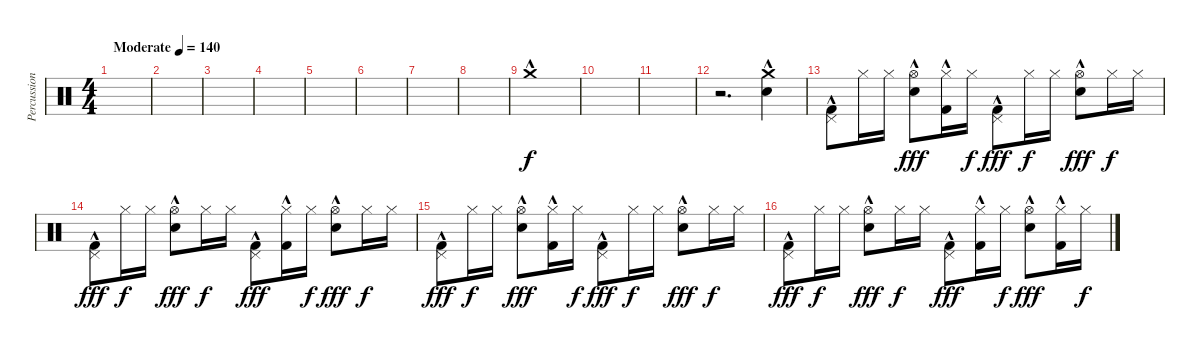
\track ("Percussion" "Percussion") {instrument percussion}
\staff {score}
\articulation defaults
\ts (4 4)
\tempo (140 "Moderate")
\clef neutral
\ks c
|
|
|
|
|
|
|
|
"Crash medium (hit)"{hac}.1 |
|
|
r.2{d} ("Crash medium (hit)"{hac} "Electric Snare (hit)"{hac}).4 |
("Pedal Hi-Hat (hit)" "Kick (hit) 2"{hac}).8 "Hi-Hat (closed)".16{dy f} "Hi-Hat (closed)".16 ("Hi-Hat (open)" "Electric Snare (hit)"{hac}).8{dy fff} ("Hi-Hat (closed)" "Kick (hit) 2"{hac}).16 "Hi-Hat (closed)".16{dy f} ("Pedal Hi-Hat (hit)" "Kick (hit) 2"{hac}).8{dy fff} "Hi-Hat (closed)".16{dy f} "Hi-Hat (closed)".16 ("Hi-Hat (open)" "Electric Snare (hit)"{hac}).8{dy fff} "Hi-Hat (closed)".16{dy f} "Hi-Hat (closed)".16 |
("Pedal Hi-Hat (hit)" "Kick (hit) 2"{hac}).8{dy fff} "Hi-Hat (closed)".16{dy f} "Hi-Hat (closed)".16 ("Hi-Hat (open)" "Electric Snare (hit)"{hac}).8{dy fff} "Hi-Hat (closed)".16{dy f} "Hi-Hat (closed)".16 ("Pedal Hi-Hat (hit)" "Kick (hit) 2"{hac}).8{dy fff} ("Hi-Hat (closed)" "Kick (hit) 2"{hac}).16 "Hi-Hat (closed)".16{dy f} ("Hi-Hat (open)" "Electric Snare (hit)"{hac}).8{dy fff} "Hi-Hat (closed)".16{dy f} "Hi-Hat (closed)".16 |
("Pedal Hi-Hat (hit)" "Kick (hit) 2"{hac}).8{dy fff} "Hi-Hat (closed)".16{dy f} "Hi-Hat (closed)".16 ("Hi-Hat (open)" "Electric Snare (hit)"{hac}).8{dy fff} ("Hi-Hat (closed)" "Kick (hit) 2"{hac}).16 "Hi-Hat (closed)".16{dy f} ("Pedal Hi-Hat (hit)" "Kick (hit) 2"{hac}).8{dy fff} "Hi-Hat (closed)".16{dy f} "Hi-Hat (closed)".16 ("Hi-Hat (open)" "Electric Snare (hit)"{hac}).8{dy fff} "Hi-Hat (closed)".16{dy f} "Hi-Hat (closed)".16 |
("Pedal Hi-Hat (hit)" "Kick (hit) 2"{hac}).8{dy fff} "Hi-Hat (closed)".16{dy f} "Hi-Hat (closed)".16 ("Hi-Hat (open)" "Electric Snare (hit)"{hac}).8{dy fff} "Hi-Hat (closed)".16{dy f} "Hi-Hat (closed)".16 ("Pedal Hi-Hat (hit)" "Kick (hit) 2"{hac}).8{dy fff} ("Hi-Hat (closed)" "Kick (hit) 2"{hac}).16 "Hi-Hat (closed)".16{dy f} ("Hi-Hat (open)" "Electric Snare (hit)"{hac}).8{dy fff} ("Hi-Hat (closed)" "Kick (hit) 2"{hac}).16 "Hi-Hat (closed)".16{dy f}
